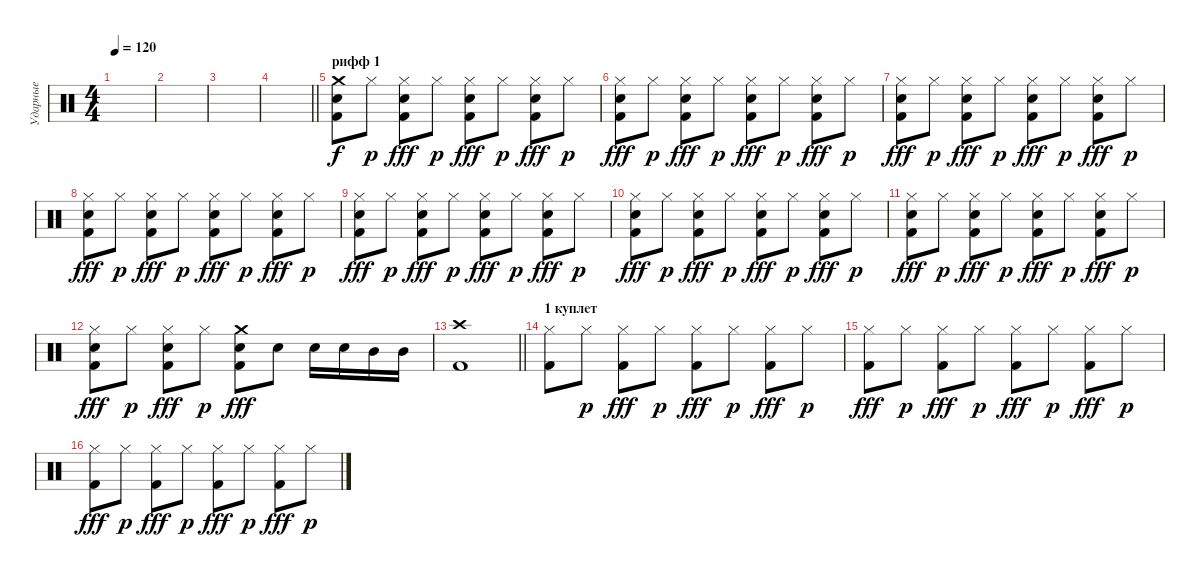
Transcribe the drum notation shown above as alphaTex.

\track ("Ударные" "Ударные") {instrument percussion}
\staff {score}
\articulation defaults
\ts (4 4)
\tempo 120
\clef neutral
\ks c
|
|
|
\barLineRight lightlight
|
\section ("" "рифф 1")
("Crash medium (hit)" "Snare (hit) 2" "Kick (hit) 2").8 "Hi-Hat (closed)".8{dy p} ("Hi-Hat (closed)" "Snare (hit) 2" "Kick (hit) 2").8{dy fff} "Hi-Hat (closed)".8{dy p} ("Hi-Hat (closed)" "Snare (hit) 2" "Kick (hit) 2").8{dy fff} "Hi-Hat (closed)".8{dy p} ("Hi-Hat (closed)" "Snare (hit) 2" "Kick (hit) 2").8{dy fff} "Hi-Hat (closed)".8{dy p} |
("Hi-Hat (closed)" "Snare (hit) 2" "Kick (hit) 2").8{dy fff} "Hi-Hat (closed)".8{dy p} ("Hi-Hat (closed)" "Snare (hit) 2" "Kick (hit) 2").8{dy fff} "Hi-Hat (closed)".8{dy p} ("Hi-Hat (closed)" "Snare (hit) 2" "Kick (hit) 2").8{dy fff} "Hi-Hat (closed)".8{dy p} ("Hi-Hat (closed)" "Snare (hit) 2" "Kick (hit) 2").8{dy fff} "Hi-Hat (closed)".8{dy p} |
("Hi-Hat (closed)" "Snare (hit) 2" "Kick (hit) 2").8{dy fff} "Hi-Hat (closed)".8{dy p} ("Hi-Hat (closed)" "Snare (hit) 2" "Kick (hit) 2").8{dy fff} "Hi-Hat (closed)".8{dy p} ("Hi-Hat (closed)" "Snare (hit) 2" "Kick (hit) 2").8{dy fff} "Hi-Hat (closed)".8{dy p} ("Hi-Hat (closed)" "Snare (hit) 2" "Kick (hit) 2").8{dy fff} "Hi-Hat (closed)".8{dy p} |
("Hi-Hat (closed)" "Snare (hit) 2" "Kick (hit) 2").8{dy fff} "Hi-Hat (closed)".8{dy p} ("Hi-Hat (closed)" "Snare (hit) 2" "Kick (hit) 2").8{dy fff} "Hi-Hat (closed)".8{dy p} ("Hi-Hat (closed)" "Snare (hit) 2" "Kick (hit) 2").8{dy fff} "Hi-Hat (closed)".8{dy p} ("Hi-Hat (closed)" "Snare (hit) 2" "Kick (hit) 2").8{dy fff} "Hi-Hat (closed)".8{dy p} |
("Hi-Hat (closed)" "Snare (hit) 2" "Kick (hit) 2").8{dy fff} "Hi-Hat (closed)".8{dy p} ("Hi-Hat (closed)" "Snare (hit) 2" "Kick (hit) 2").8{dy fff} "Hi-Hat (closed)".8{dy p} ("Hi-Hat (closed)" "Snare (hit) 2" "Kick (hit) 2").8{dy fff} "Hi-Hat (closed)".8{dy p} ("Hi-Hat (closed)" "Snare (hit) 2" "Kick (hit) 2").8{dy fff} "Hi-Hat (closed)".8{dy p} |
("Hi-Hat (closed)" "Snare (hit) 2" "Kick (hit) 2").8{dy fff} "Hi-Hat (closed)".8{dy p} ("Hi-Hat (closed)" "Snare (hit) 2" "Kick (hit) 2").8{dy fff} "Hi-Hat (closed)".8{dy p} ("Hi-Hat (closed)" "Snare (hit) 2" "Kick (hit) 2").8{dy fff} "Hi-Hat (closed)".8{dy p} ("Hi-Hat (closed)" "Snare (hit) 2" "Kick (hit) 2").8{dy fff} "Hi-Hat (closed)".8{dy p} |
("Hi-Hat (closed)" "Snare (hit) 2" "Kick (hit) 2").8{dy fff} "Hi-Hat (closed)".8{dy p} ("Hi-Hat (closed)" "Snare (hit) 2" "Kick (hit) 2").8{dy fff} "Hi-Hat (closed)".8{dy p} ("Hi-Hat (closed)" "Snare (hit) 2" "Kick (hit) 2").8{dy fff} "Hi-Hat (closed)".8{dy p} ("Hi-Hat (closed)" "Snare (hit) 2" "Kick (hit) 2").8{dy fff} "Hi-Hat (closed)".8{dy p} |
("Hi-Hat (closed)" "Snare (hit) 2" "Kick (hit) 2").8{dy fff} "Hi-Hat (closed)".8{dy p} ("Hi-Hat (closed)" "Snare (hit) 2" "Kick (hit) 2").8{dy fff} "Hi-Hat (closed)".8{dy p} ("Crash medium (hit)" "Snare (hit) 2" "Kick (hit) 2").8{dy fff} "Snare (hit) 2".8 "Snare (hit) 2".16 "Snare (hit) 2".16 "Mid Tom (hit)".16 "Mid Tom (hit)".16 |
\barLineRight lightlight
("Crash high (hit)" "Kick (hit) 2").1 |
\section ("" "1 куплет")
("Hi-Hat (closed)" "Kick (hit) 2").8 "Hi-Hat (closed)".8{dy p} ("Hi-Hat (closed)" "Kick (hit) 2").8{dy fff} "Hi-Hat (closed)".8{dy p} ("Hi-Hat (closed)" "Kick (hit) 2").8{dy fff} "Hi-Hat (closed)".8{dy p} ("Hi-Hat (closed)" "Kick (hit) 2").8{dy fff} "Hi-Hat (closed)".8{dy p} |
("Hi-Hat (closed)" "Kick (hit) 2").8{dy fff} "Hi-Hat (closed)".8{dy p} ("Hi-Hat (closed)" "Kick (hit) 2").8{dy fff} "Hi-Hat (closed)".8{dy p} ("Hi-Hat (closed)" "Kick (hit) 2").8{dy fff} "Hi-Hat (closed)".8{dy p} ("Hi-Hat (closed)" "Kick (hit) 2").8{dy fff} "Hi-Hat (closed)".8{dy p} |
("Hi-Hat (closed)" "Kick (hit) 2").8{dy fff} "Hi-Hat (closed)".8{dy p} ("Hi-Hat (closed)" "Kick (hit) 2").8{dy fff} "Hi-Hat (closed)".8{dy p} ("Hi-Hat (closed)" "Kick (hit) 2").8{dy fff} "Hi-Hat (closed)".8{dy p} ("Hi-Hat (closed)" "Kick (hit) 2").8{dy fff} "Hi-Hat (closed)".8{dy p}
